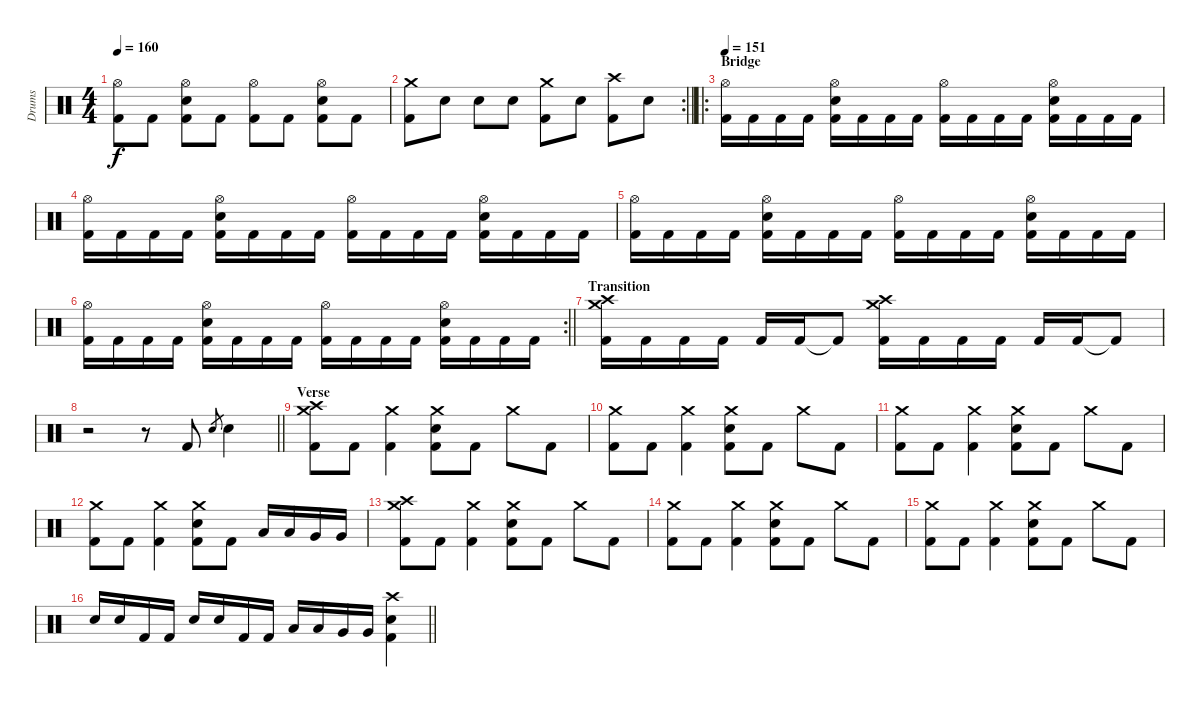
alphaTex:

\track ("Drums" "Drums") {instrument percussion}
\staff {score}
\articulation defaults
\ts (4 4)
\tempo 160
\clef neutral
\ks c
("Hi-Hat (open)" "Kick (hit) 2").8{dy f} "Kick (hit) 2".8 ("Hi-Hat (open)" "Electric Snare (hit)" "Kick (hit) 2").8 "Kick (hit) 2".8 ("Hi-Hat (open)" "Kick (hit) 2").8 "Kick (hit) 2".8 ("Hi-Hat (open)" "Electric Snare (hit)" "Kick (hit) 2").8 "Kick (hit) 2".8 |
\rc 2
\barLineRight lightlight
("Crash medium (hit)" "Kick (hit) 2").8 "Electric Snare (hit)".8 "Electric Snare (hit)".8 "Electric Snare (hit)".8 ("Crash medium (hit)" "Kick (hit) 2").8 "Electric Snare (hit)".8 ("Crash high (hit)" "Kick (hit) 2").8 "Electric Snare (hit)".8 |
\ro
\section ("" "Bridge")
\tempo 151
("Hi-Hat (open)" "Kick (hit) 2").16 "Kick (hit) 2".16 "Kick (hit) 2".16 "Kick (hit) 2".16 ("Hi-Hat (open)" "Electric Snare (hit)" "Kick (hit) 2").16 "Kick (hit) 2".16 "Kick (hit) 2".16 "Kick (hit) 2".16 ("Hi-Hat (open)" "Kick (hit) 2").16 "Kick (hit) 2".16 "Kick (hit) 2".16 "Kick (hit) 2".16 ("Hi-Hat (open)" "Electric Snare (hit)" "Kick (hit) 2").16 "Kick (hit) 2".16 "Kick (hit) 2".16 "Kick (hit) 2".16 |
("Hi-Hat (open)" "Kick (hit) 2").16 "Kick (hit) 2".16 "Kick (hit) 2".16 "Kick (hit) 2".16 ("Hi-Hat (open)" "Electric Snare (hit)" "Kick (hit) 2").16 "Kick (hit) 2".16 "Kick (hit) 2".16 "Kick (hit) 2".16 ("Hi-Hat (open)" "Kick (hit) 2").16 "Kick (hit) 2".16 "Kick (hit) 2".16 "Kick (hit) 2".16 ("Hi-Hat (open)" "Electric Snare (hit)" "Kick (hit) 2").16 "Kick (hit) 2".16 "Kick (hit) 2".16 "Kick (hit) 2".16 |
("Hi-Hat (open)" "Kick (hit) 2").16 "Kick (hit) 2".16 "Kick (hit) 2".16 "Kick (hit) 2".16 ("Hi-Hat (open)" "Electric Snare (hit)" "Kick (hit) 2").16 "Kick (hit) 2".16 "Kick (hit) 2".16 "Kick (hit) 2".16 ("Hi-Hat (open)" "Kick (hit) 2").16 "Kick (hit) 2".16 "Kick (hit) 2".16 "Kick (hit) 2".16 ("Hi-Hat (open)" "Electric Snare (hit)" "Kick (hit) 2").16 "Kick (hit) 2".16 "Kick (hit) 2".16 "Kick (hit) 2".16 |
\rc 2
\barLineRight lightlight
("Hi-Hat (open)" "Kick (hit) 2").16 "Kick (hit) 2".16 "Kick (hit) 2".16 "Kick (hit) 2".16 ("Hi-Hat (open)" "Electric Snare (hit)" "Kick (hit) 2").16 "Kick (hit) 2".16 "Kick (hit) 2".16 "Kick (hit) 2".16 ("Hi-Hat (open)" "Kick (hit) 2").16 "Kick (hit) 2".16 "Kick (hit) 2".16 "Kick (hit) 2".16 ("Hi-Hat (open)" "Electric Snare (hit)" "Kick (hit) 2").16 "Kick (hit) 2".16 "Kick (hit) 2".16 "Kick (hit) 2".16 |
\section ("" "Transition")
("Crash medium (hit)" "Crash high (hit)" "Kick (hit) 2").16 "Kick (hit) 2".16 "Kick (hit) 2".16 "Kick (hit) 2".16 "Kick (hit) 2".16 "Kick (hit) 2".16 "Kick (hit) 2"{t}.8 ("Crash medium (hit)" "Crash high (hit)" "Kick (hit) 2").16 "Kick (hit) 2".16 "Kick (hit) 2".16 "Kick (hit) 2".16 "Kick (hit) 2".16 "Kick (hit) 2".16 "Kick (hit) 2"{t}.8 |
\barLineRight lightlight
r.2 r.8 "Kick (hit) 2".8 "Electric Snare (hit)".8{gr} "Electric Snare (hit)".4 |
\section ("" "Verse")
("Crash medium (hit)" "Crash high (hit)" "Kick (hit) 2").8 "Kick (hit) 2".8 ("Crash medium (hit)" "Kick (hit) 2").4 ("Crash medium (hit)" "Electric Snare (hit)" "Kick (hit) 2").8 "Kick (hit) 2".8 "Crash medium (hit)".8 "Kick (hit) 2".8 |
("Crash medium (hit)" "Kick (hit) 2").8 "Kick (hit) 2".8 ("Crash medium (hit)" "Kick (hit) 2").4 ("Crash medium (hit)" "Electric Snare (hit)" "Kick (hit) 2").8 "Kick (hit) 2".8 "Crash medium (hit)".8 "Kick (hit) 2".8 |
("Crash medium (hit)" "Kick (hit) 2").8 "Kick (hit) 2".8 ("Crash medium (hit)" "Kick (hit) 2").4 ("Crash medium (hit)" "Electric Snare (hit)" "Kick (hit) 2").8 "Kick (hit) 2".8 "Crash medium (hit)".8 "Kick (hit) 2".8 |
("Crash medium (hit)" "Kick (hit) 2").8 "Kick (hit) 2".8 ("Crash medium (hit)" "Kick (hit) 2").4 ("Crash medium (hit)" "Electric Snare (hit)" "Kick (hit) 2").8 "Kick (hit) 2".8 "Low Tom (hit)".16 "Low Tom (hit)".16 "Very Low Tom (hit)".16 "Very Low Tom (hit)".16 |
("Crash medium (hit)" "Crash high (hit)" "Kick (hit) 2").8 "Kick (hit) 2".8 ("Crash medium (hit)" "Kick (hit) 2").4 ("Crash medium (hit)" "Electric Snare (hit)" "Kick (hit) 2").8 "Kick (hit) 2".8 "Crash medium (hit)".8 "Kick (hit) 2".8 |
("Crash medium (hit)" "Kick (hit) 2").8 "Kick (hit) 2".8 ("Crash medium (hit)" "Kick (hit) 2").4 ("Crash medium (hit)" "Electric Snare (hit)" "Kick (hit) 2").8 "Kick (hit) 2".8 "Crash medium (hit)".8 "Kick (hit) 2".8 |
("Crash medium (hit)" "Kick (hit) 2").8 "Kick (hit) 2".8 ("Crash medium (hit)" "Kick (hit) 2").4 ("Crash medium (hit)" "Electric Snare (hit)" "Kick (hit) 2").8 "Kick (hit) 2".8 "Crash medium (hit)".8 "Kick (hit) 2".8 |
\barLineRight lightlight "Electric Snare (hit)".16 "Electric Snare (hit)".16 "Kick (hit) 2".16 "Kick (hit) 2".16 "Electric Snare (hit)".16 "Electric Snare (hit)".16 "Kick (hit) 2".16 "Kick (hit) 2".16 "Low Tom (hit)".16 "Low Tom (hit)".16 "Very Low Tom (hit)".16 "Very Low Tom (hit)".16
("Crash high (hit)" "Electric Snare (hit)" "Kick (hit) 2").4
